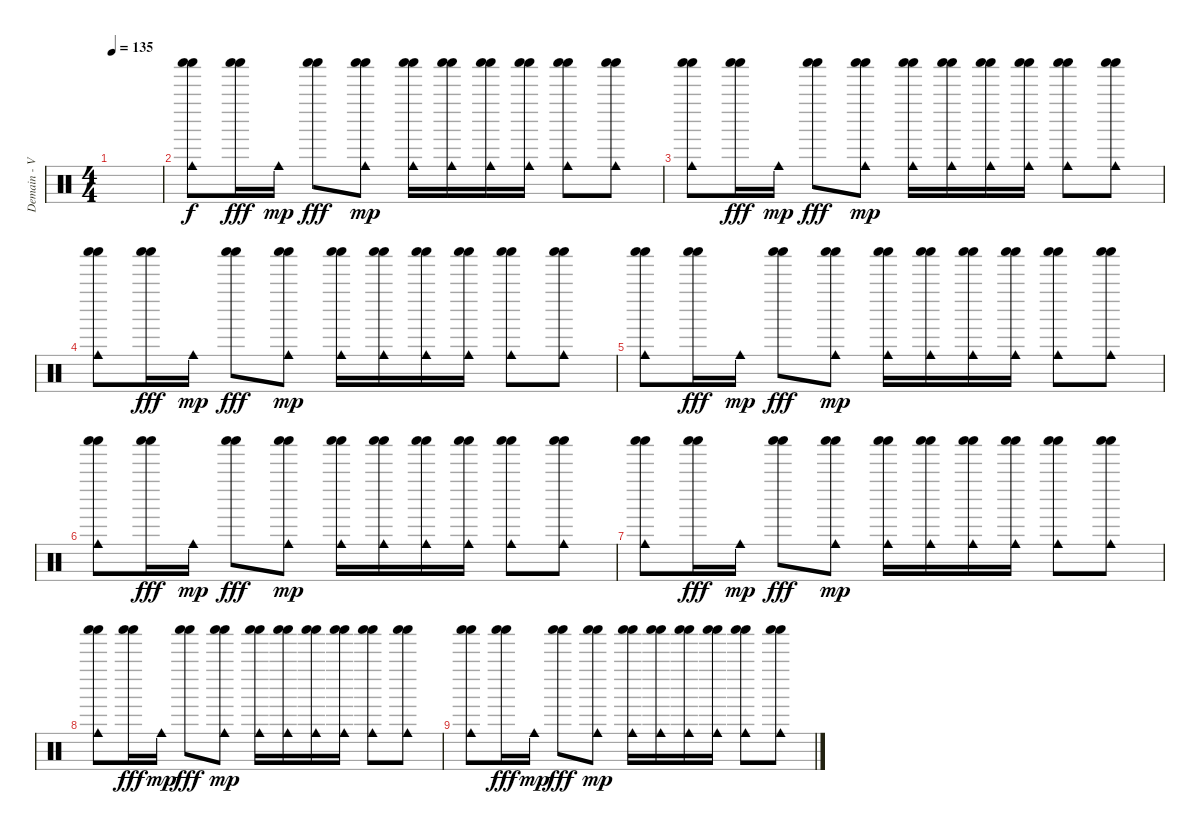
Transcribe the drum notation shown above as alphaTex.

\track ("Demain - Various Perc." "Demain - V") {instrument percussion}
\staff {score}
\articulation defaults
\ts (4 4)
\tempo 135
\clef neutral
\ks c
|
("Shaker (hit)" "Shaker (hit)" "Cowbell medium (hit)").8 ("Shaker (hit)" "Shaker (hit)").16{dy fff} "Cowbell medium (hit)".16{dy mp} ("Shaker (hit)" "Shaker (hit)").8{dy fff} ("Shaker (hit)" "Shaker (hit)" "Cowbell medium (hit)").8{dy mp} ("Shaker (hit)" "Shaker (hit)" "Cowbell medium (hit)").16 ("Shaker (hit)" "Shaker (hit)" "Cowbell medium (hit)").16 ("Shaker (hit)" "Shaker (hit)" "Cowbell medium (hit)").16 ("Shaker (hit)" "Shaker (hit)" "Cowbell medium (hit)").16 ("Shaker (hit)" "Shaker (hit)" "Cowbell medium (hit)").8 ("Shaker (hit)" "Shaker (hit)" "Cowbell medium (hit)").8 |
("Shaker (hit)" "Shaker (hit)" "Cowbell medium (hit)").8 ("Shaker (hit)" "Shaker (hit)").16{dy fff} "Cowbell medium (hit)".16{dy mp} ("Shaker (hit)" "Shaker (hit)").8{dy fff} ("Shaker (hit)" "Shaker (hit)" "Cowbell medium (hit)").8{dy mp} ("Shaker (hit)" "Shaker (hit)" "Cowbell medium (hit)").16 ("Shaker (hit)" "Shaker (hit)" "Cowbell medium (hit)").16 ("Shaker (hit)" "Shaker (hit)" "Cowbell medium (hit)").16 ("Shaker (hit)" "Shaker (hit)" "Cowbell medium (hit)").16 ("Shaker (hit)" "Shaker (hit)" "Cowbell medium (hit)").8 ("Shaker (hit)" "Shaker (hit)" "Cowbell medium (hit)").8 |
("Shaker (hit)" "Shaker (hit)" "Cowbell medium (hit)").8 ("Shaker (hit)" "Shaker (hit)").16{dy fff} "Cowbell medium (hit)".16{dy mp} ("Shaker (hit)" "Shaker (hit)").8{dy fff} ("Shaker (hit)" "Shaker (hit)" "Cowbell medium (hit)").8{dy mp} ("Shaker (hit)" "Shaker (hit)" "Cowbell medium (hit)").16 ("Shaker (hit)" "Shaker (hit)" "Cowbell medium (hit)").16 ("Shaker (hit)" "Shaker (hit)" "Cowbell medium (hit)").16 ("Shaker (hit)" "Shaker (hit)" "Cowbell medium (hit)").16 ("Shaker (hit)" "Shaker (hit)" "Cowbell medium (hit)").8 ("Shaker (hit)" "Shaker (hit)" "Cowbell medium (hit)").8 |
("Shaker (hit)" "Shaker (hit)" "Cowbell medium (hit)").8 ("Shaker (hit)" "Shaker (hit)").16{dy fff} "Cowbell medium (hit)".16{dy mp} ("Shaker (hit)" "Shaker (hit)").8{dy fff} ("Shaker (hit)" "Shaker (hit)" "Cowbell medium (hit)").8{dy mp} ("Shaker (hit)" "Shaker (hit)" "Cowbell medium (hit)").16 ("Shaker (hit)" "Shaker (hit)" "Cowbell medium (hit)").16 ("Shaker (hit)" "Shaker (hit)" "Cowbell medium (hit)").16 ("Shaker (hit)" "Shaker (hit)" "Cowbell medium (hit)").16 ("Shaker (hit)" "Shaker (hit)" "Cowbell medium (hit)").8 ("Shaker (hit)" "Shaker (hit)" "Cowbell medium (hit)").8 |
("Shaker (hit)" "Shaker (hit)" "Cowbell medium (hit)").8 ("Shaker (hit)" "Shaker (hit)").16{dy fff} "Cowbell medium (hit)".16{dy mp} ("Shaker (hit)" "Shaker (hit)").8{dy fff} ("Shaker (hit)" "Shaker (hit)" "Cowbell medium (hit)").8{dy mp} ("Shaker (hit)" "Shaker (hit)" "Cowbell medium (hit)").16 ("Shaker (hit)" "Shaker (hit)" "Cowbell medium (hit)").16 ("Shaker (hit)" "Shaker (hit)" "Cowbell medium (hit)").16 ("Shaker (hit)" "Shaker (hit)" "Cowbell medium (hit)").16 ("Shaker (hit)" "Shaker (hit)" "Cowbell medium (hit)").8 ("Shaker (hit)" "Shaker (hit)" "Cowbell medium (hit)").8 |
("Shaker (hit)" "Shaker (hit)" "Cowbell medium (hit)").8 ("Shaker (hit)" "Shaker (hit)").16{dy fff} "Cowbell medium (hit)".16{dy mp} ("Shaker (hit)" "Shaker (hit)").8{dy fff} ("Shaker (hit)" "Shaker (hit)" "Cowbell medium (hit)").8{dy mp} ("Shaker (hit)" "Shaker (hit)" "Cowbell medium (hit)").16 ("Shaker (hit)" "Shaker (hit)" "Cowbell medium (hit)").16 ("Shaker (hit)" "Shaker (hit)" "Cowbell medium (hit)").16 ("Shaker (hit)" "Shaker (hit)" "Cowbell medium (hit)").16 ("Shaker (hit)" "Shaker (hit)" "Cowbell medium (hit)").8 ("Shaker (hit)" "Shaker (hit)" "Cowbell medium (hit)").8 |
("Shaker (hit)" "Shaker (hit)" "Cowbell medium (hit)").8 ("Shaker (hit)" "Shaker (hit)").16{dy fff} "Cowbell medium (hit)".16{dy mp} ("Shaker (hit)" "Shaker (hit)").8{dy fff} ("Shaker (hit)" "Shaker (hit)" "Cowbell medium (hit)").8{dy mp} ("Shaker (hit)" "Shaker (hit)" "Cowbell medium (hit)").16 ("Shaker (hit)" "Shaker (hit)" "Cowbell medium (hit)").16 ("Shaker (hit)" "Shaker (hit)" "Cowbell medium (hit)").16 ("Shaker (hit)" "Shaker (hit)" "Cowbell medium (hit)").16 ("Shaker (hit)" "Shaker (hit)" "Cowbell medium (hit)").8 ("Shaker (hit)" "Shaker (hit)" "Cowbell medium (hit)").8 |
("Shaker (hit)" "Shaker (hit)" "Cowbell medium (hit)").8 ("Shaker (hit)" "Shaker (hit)").16{dy fff} "Cowbell medium (hit)".16{dy mp} ("Shaker (hit)" "Shaker (hit)").8{dy fff} ("Shaker (hit)" "Shaker (hit)" "Cowbell medium (hit)").8{dy mp} ("Shaker (hit)" "Shaker (hit)" "Cowbell medium (hit)").16 ("Shaker (hit)" "Shaker (hit)" "Cowbell medium (hit)").16 ("Shaker (hit)" "Shaker (hit)" "Cowbell medium (hit)").16 ("Shaker (hit)" "Shaker (hit)" "Cowbell medium (hit)").16 ("Shaker (hit)" "Shaker (hit)" "Cowbell medium (hit)").8 ("Shaker (hit)" "Shaker (hit)" "Cowbell medium (hit)").8
